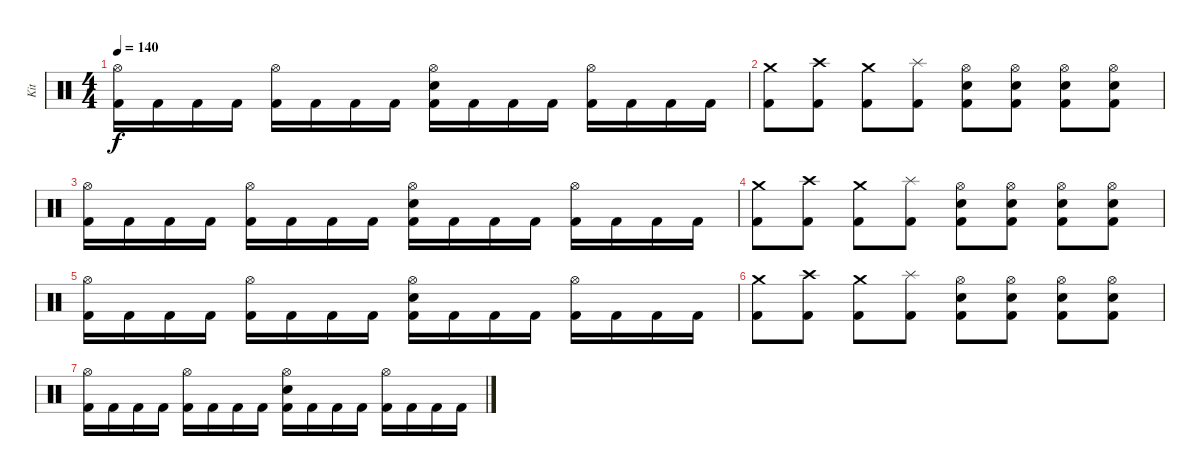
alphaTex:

\track ("Kit" "Kit") {instrument percussion}
\staff {score}
\articulation defaults
\ts (4 4)
\tempo 140
\clef neutral
\ks c
("Hi-Hat (open)" "Kick (hit) 2").16{dy f} "Kick (hit) 2".16 "Kick (hit) 2".16 "Kick (hit) 2".16 ("Hi-Hat (open)" "Kick (hit) 2").16 "Kick (hit) 2".16 "Kick (hit) 2".16 "Kick (hit) 2".16 ("Hi-Hat (open)" "Electric Snare (hit)" "Kick (hit) 2").16 "Kick (hit) 2".16 "Kick (hit) 2".16 "Kick (hit) 2".16 ("Hi-Hat (open)" "Kick (hit) 2").16 "Kick (hit) 2".16 "Kick (hit) 2".16 "Kick (hit) 2".16 |
("Crash medium (hit)" "Kick (hit) 2").8 ("Crash high (hit)" "Kick (hit) 2").8 ("Crash medium (hit)" "Kick (hit) 2").8 ("Splash (hit)" "Kick (hit) 2").8 ("Hi-Hat (open)" "Electric Snare (hit)" "Kick (hit) 2").8 ("Hi-Hat (open)" "Electric Snare (hit)" "Kick (hit) 2").8 ("Hi-Hat (open)" "Electric Snare (hit)" "Kick (hit) 2").8 ("Hi-Hat (open)" "Electric Snare (hit)" "Kick (hit) 2").8 |
("Hi-Hat (open)" "Kick (hit) 2").16 "Kick (hit) 2".16 "Kick (hit) 2".16 "Kick (hit) 2".16 ("Hi-Hat (open)" "Kick (hit) 2").16 "Kick (hit) 2".16 "Kick (hit) 2".16 "Kick (hit) 2".16 ("Hi-Hat (open)" "Electric Snare (hit)" "Kick (hit) 2").16 "Kick (hit) 2".16 "Kick (hit) 2".16 "Kick (hit) 2".16 ("Hi-Hat (open)" "Kick (hit) 2").16 "Kick (hit) 2".16 "Kick (hit) 2".16 "Kick (hit) 2".16 |
("Crash medium (hit)" "Kick (hit) 2").8{volume 0} ("Crash high (hit)" "Kick (hit) 2").8 ("Crash medium (hit)" "Kick (hit) 2").8 ("Splash (hit)" "Kick (hit) 2").8 ("Hi-Hat (open)" "Electric Snare (hit)" "Kick (hit) 2").8 ("Hi-Hat (open)" "Electric Snare (hit)" "Kick (hit) 2").8 ("Hi-Hat (open)" "Electric Snare (hit)" "Kick (hit) 2").8 ("Hi-Hat (open)" "Electric Snare (hit)" "Kick (hit) 2").8 |
("Hi-Hat (open)" "Kick (hit) 2").16 "Kick (hit) 2".16 "Kick (hit) 2".16 "Kick (hit) 2".16 ("Hi-Hat (open)" "Kick (hit) 2").16 "Kick (hit) 2".16 "Kick (hit) 2".16 "Kick (hit) 2".16 ("Hi-Hat (open)" "Electric Snare (hit)" "Kick (hit) 2").16 "Kick (hit) 2".16 "Kick (hit) 2".16 "Kick (hit) 2".16 ("Hi-Hat (open)" "Kick (hit) 2").16 "Kick (hit) 2".16 "Kick (hit) 2".16 "Kick (hit) 2".16 |
("Crash medium (hit)" "Kick (hit) 2").8{volume 0} ("Crash high (hit)" "Kick (hit) 2").8 ("Crash medium (hit)" "Kick (hit) 2").8 ("Splash (hit)" "Kick (hit) 2").8 ("Hi-Hat (open)" "Electric Snare (hit)" "Kick (hit) 2").8 ("Hi-Hat (open)" "Electric Snare (hit)" "Kick (hit) 2").8 ("Hi-Hat (open)" "Electric Snare (hit)" "Kick (hit) 2").8 ("Hi-Hat (open)" "Electric Snare (hit)" "Kick (hit) 2").8 |
("Hi-Hat (open)" "Kick (hit) 2").16 "Kick (hit) 2".16 "Kick (hit) 2".16 "Kick (hit) 2".16 ("Hi-Hat (open)" "Kick (hit) 2").16 "Kick (hit) 2".16 "Kick (hit) 2".16 "Kick (hit) 2".16 ("Hi-Hat (open)" "Electric Snare (hit)" "Kick (hit) 2").16 "Kick (hit) 2".16 "Kick (hit) 2".16 "Kick (hit) 2".16 ("Hi-Hat (open)" "Kick (hit) 2").16 "Kick (hit) 2".16 "Kick (hit) 2".16 "Kick (hit) 2".16
